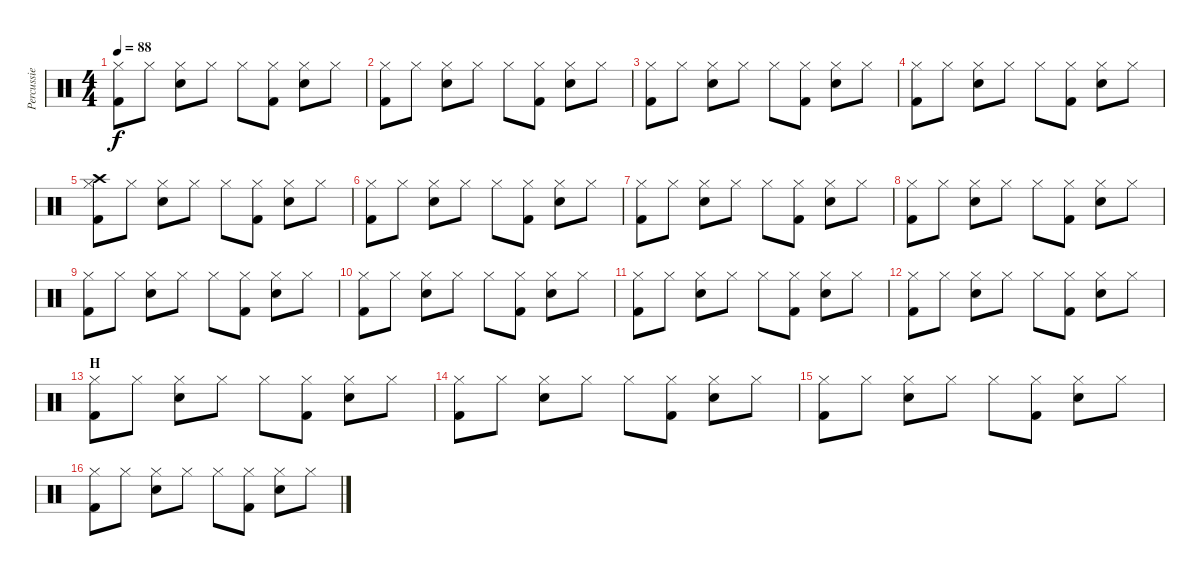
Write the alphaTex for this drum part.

\track ("Percussie" "Percussie") {instrument percussion}
\staff {score}
\articulation defaults
\ts (4 4)
\tempo 88
\clef neutral
\ks c
("Hi-Hat (closed)" "Kick (hit) 2").8{dy f} "Hi-Hat (closed)".8 ("Hi-Hat (closed)" "Snare (hit) 2").8 "Hi-Hat (closed)".8 "Hi-Hat (closed)".8 ("Hi-Hat (closed)" "Kick (hit) 2").8 ("Hi-Hat (closed)" "Snare (hit) 2").8 "Hi-Hat (closed)".8 |
("Hi-Hat (closed)" "Kick (hit) 2").8 "Hi-Hat (closed)".8 ("Hi-Hat (closed)" "Snare (hit) 2").8 "Hi-Hat (closed)".8 "Hi-Hat (closed)".8 ("Hi-Hat (closed)" "Kick (hit) 2").8 ("Hi-Hat (closed)" "Snare (hit) 2").8 "Hi-Hat (closed)".8 |
("Hi-Hat (closed)" "Kick (hit) 2").8 "Hi-Hat (closed)".8 ("Hi-Hat (closed)" "Snare (hit) 2").8 "Hi-Hat (closed)".8 "Hi-Hat (closed)".8 ("Hi-Hat (closed)" "Kick (hit) 2").8 ("Hi-Hat (closed)" "Snare (hit) 2").8 "Hi-Hat (closed)".8 |
("Hi-Hat (closed)" "Kick (hit) 2").8 "Hi-Hat (closed)".8 ("Hi-Hat (closed)" "Snare (hit) 2").8 "Hi-Hat (closed)".8 "Hi-Hat (closed)".8 ("Hi-Hat (closed)" "Kick (hit) 2").8 ("Hi-Hat (closed)" "Snare (hit) 2").8 "Hi-Hat (closed)".8 |
("Crash high (hit)" "Hi-Hat (closed)" "Kick (hit) 2").8 "Hi-Hat (closed)".8 ("Hi-Hat (closed)" "Snare (hit) 2").8 "Hi-Hat (closed)".8 "Hi-Hat (closed)".8 ("Hi-Hat (closed)" "Kick (hit) 2").8 ("Hi-Hat (closed)" "Snare (hit) 2").8 "Hi-Hat (closed)".8 |
("Hi-Hat (closed)" "Kick (hit) 2").8 "Hi-Hat (closed)".8 ("Hi-Hat (closed)" "Snare (hit) 2").8 "Hi-Hat (closed)".8 "Hi-Hat (closed)".8 ("Hi-Hat (closed)" "Kick (hit) 2").8 ("Hi-Hat (closed)" "Snare (hit) 2").8 "Hi-Hat (closed)".8 |
("Hi-Hat (closed)" "Kick (hit) 2").8 "Hi-Hat (closed)".8 ("Hi-Hat (closed)" "Snare (hit) 2").8 "Hi-Hat (closed)".8 "Hi-Hat (closed)".8 ("Hi-Hat (closed)" "Kick (hit) 2").8 ("Hi-Hat (closed)" "Snare (hit) 2").8 "Hi-Hat (closed)".8 |
("Hi-Hat (closed)" "Kick (hit) 2").8 "Hi-Hat (closed)".8 ("Hi-Hat (closed)" "Snare (hit) 2").8 "Hi-Hat (closed)".8 "Hi-Hat (closed)".8 ("Hi-Hat (closed)" "Kick (hit) 2").8 ("Hi-Hat (closed)" "Snare (hit) 2").8 "Hi-Hat (closed)".8 |
("Hi-Hat (closed)" "Kick (hit) 2").8 "Hi-Hat (closed)".8 ("Hi-Hat (closed)" "Snare (hit) 2").8 "Hi-Hat (closed)".8 "Hi-Hat (closed)".8 ("Hi-Hat (closed)" "Kick (hit) 2").8 ("Hi-Hat (closed)" "Snare (hit) 2").8 "Hi-Hat (closed)".8 |
("Hi-Hat (closed)" "Kick (hit) 2").8 "Hi-Hat (closed)".8 ("Hi-Hat (closed)" "Snare (hit) 2").8 "Hi-Hat (closed)".8 "Hi-Hat (closed)".8 ("Hi-Hat (closed)" "Kick (hit) 2").8 ("Hi-Hat (closed)" "Snare (hit) 2").8 "Hi-Hat (closed)".8 |
("Hi-Hat (closed)" "Kick (hit) 2").8 "Hi-Hat (closed)".8 ("Hi-Hat (closed)" "Snare (hit) 2").8 "Hi-Hat (closed)".8 "Hi-Hat (closed)".8 ("Hi-Hat (closed)" "Kick (hit) 2").8 ("Hi-Hat (closed)" "Snare (hit) 2").8 "Hi-Hat (closed)".8 |
("Hi-Hat (closed)" "Kick (hit) 2").8 "Hi-Hat (closed)".8 ("Hi-Hat (closed)" "Snare (hit) 2").8 "Hi-Hat (closed)".8 "Hi-Hat (closed)".8 ("Hi-Hat (closed)" "Kick (hit) 2").8 ("Hi-Hat (closed)" "Snare (hit) 2").8 "Hi-Hat (closed)".8 |
\section ("" "H")
("Hi-Hat (closed)" "Kick (hit) 2").8 "Hi-Hat (closed)".8 ("Hi-Hat (closed)" "Snare (hit) 2").8 "Hi-Hat (closed)".8 "Hi-Hat (closed)".8 ("Hi-Hat (closed)" "Kick (hit) 2").8 ("Hi-Hat (closed)" "Snare (hit) 2").8 "Hi-Hat (closed)".8 |
("Hi-Hat (closed)" "Kick (hit) 2").8 "Hi-Hat (closed)".8 ("Hi-Hat (closed)" "Snare (hit) 2").8 "Hi-Hat (closed)".8 "Hi-Hat (closed)".8 ("Hi-Hat (closed)" "Kick (hit) 2").8 ("Hi-Hat (closed)" "Snare (hit) 2").8 "Hi-Hat (closed)".8 |
("Hi-Hat (closed)" "Kick (hit) 2").8 "Hi-Hat (closed)".8 ("Hi-Hat (closed)" "Snare (hit) 2").8 "Hi-Hat (closed)".8 "Hi-Hat (closed)".8 ("Hi-Hat (closed)" "Kick (hit) 2").8 ("Hi-Hat (closed)" "Snare (hit) 2").8 "Hi-Hat (closed)".8 |
("Hi-Hat (closed)" "Kick (hit) 2").8 "Hi-Hat (closed)".8 ("Hi-Hat (closed)" "Snare (hit) 2").8 "Hi-Hat (closed)".8 "Hi-Hat (closed)".8 ("Hi-Hat (closed)" "Kick (hit) 2").8 ("Hi-Hat (closed)" "Snare (hit) 2").8 "Hi-Hat (closed)".8
